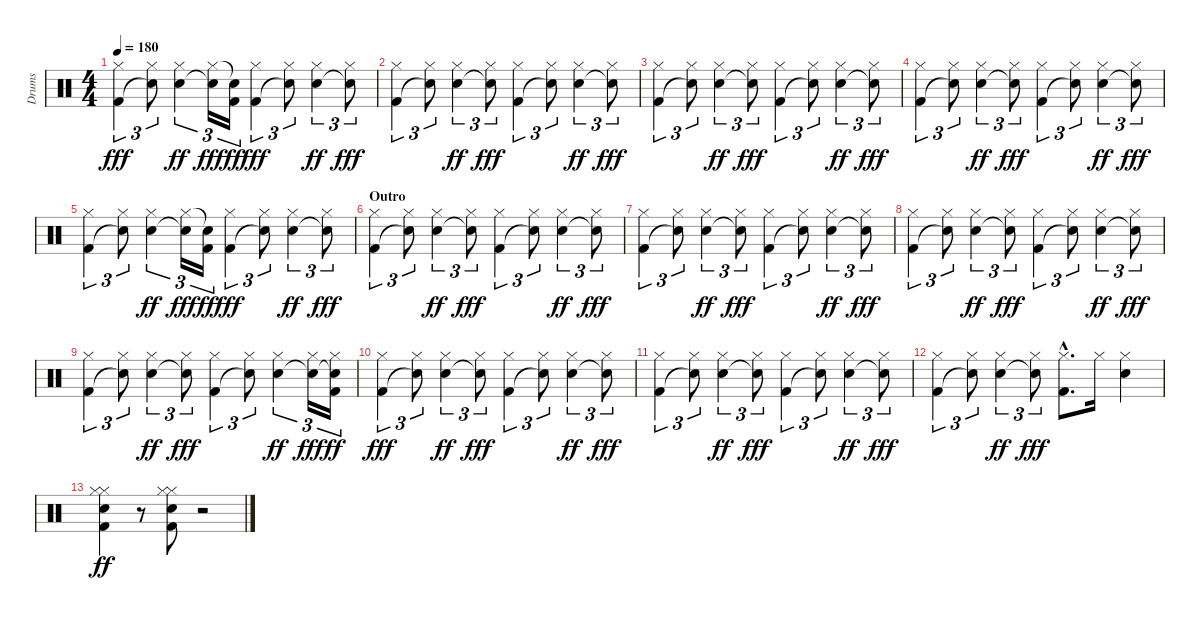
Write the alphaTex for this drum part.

\track ("Drums" "Drums") {instrument percussion}
\staff {score}
\articulation defaults
\ts (4 4)
\tempo 180
\clef neutral
\ks c
("Hi-Hat (closed)" "Kick (hit) 2").4{tu (3 2) dy fff} ("Hi-Hat (closed)" "Snare (hit)"{t}).8{tu (3 2)} ("Hi-Hat (closed)" "Electric Snare (hit)").4{tu (3 2) dy ff} ("Hi-Hat (closed)" "Snare (hit)"{t}).16{tu (3 2) dy fff} ("Snare (hit)"{t} "Kick (hit) 2").16{tu (3 2) dy ff} ("Hi-Hat (closed)" "Kick (hit) 2").4{tu (3 2) dy fff} ("Hi-Hat (closed)" "Snare (hit)"{t}).8{tu (3 2)} ("Hi-Hat (closed)" "Electric Snare (hit)").4{tu (3 2) dy ff} ("Hi-Hat (closed)" "Snare (hit)"{t}).8{tu (3 2) dy fff} |
("Hi-Hat (closed)" "Kick (hit) 2").4{tu (3 2)} ("Hi-Hat (closed)" "Snare (hit)"{t}).8{tu (3 2)} ("Hi-Hat (closed)" "Electric Snare (hit)").4{tu (3 2) dy ff} ("Hi-Hat (closed)" "Snare (hit)"{t}).8{tu (3 2) dy fff} ("Hi-Hat (closed)" "Kick (hit) 2").4{tu (3 2)} ("Hi-Hat (closed)" "Snare (hit)"{t}).8{tu (3 2)} ("Hi-Hat (closed)" "Electric Snare (hit)").4{tu (3 2) dy ff} ("Hi-Hat (closed)" "Snare (hit)"{t}).8{tu (3 2) dy fff} |
("Hi-Hat (closed)" "Kick (hit) 2").4{tu (3 2)} ("Hi-Hat (closed)" "Snare (hit)"{t}).8{tu (3 2)} ("Hi-Hat (closed)" "Electric Snare (hit)").4{tu (3 2) dy ff} ("Hi-Hat (closed)" "Snare (hit)"{t}).8{tu (3 2) dy fff} ("Hi-Hat (closed)" "Kick (hit) 2").4{tu (3 2)} ("Hi-Hat (closed)" "Snare (hit)"{t}).8{tu (3 2)} ("Hi-Hat (closed)" "Electric Snare (hit)").4{tu (3 2) dy ff} ("Hi-Hat (closed)" "Snare (hit)"{t}).8{tu (3 2) dy fff} |
("Hi-Hat (closed)" "Kick (hit) 2").4{tu (3 2)} ("Hi-Hat (closed)" "Snare (hit)"{t}).8{tu (3 2)} ("Hi-Hat (closed)" "Electric Snare (hit)").4{tu (3 2) dy ff} ("Hi-Hat (closed)" "Snare (hit)"{t}).8{tu (3 2) dy fff} ("Hi-Hat (closed)" "Kick (hit) 2").4{tu (3 2)} ("Hi-Hat (closed)" "Snare (hit)"{t}).8{tu (3 2)} ("Hi-Hat (closed)" "Electric Snare (hit)").4{tu (3 2) dy ff} ("Hi-Hat (closed)" "Snare (hit)"{t}).8{tu (3 2) dy fff} |
("Hi-Hat (closed)" "Kick (hit) 2").4{tu (3 2)} ("Hi-Hat (closed)" "Snare (hit)"{t}).8{tu (3 2)} ("Hi-Hat (closed)" "Electric Snare (hit)").4{tu (3 2) dy ff} ("Hi-Hat (closed)" "Snare (hit)"{t}).16{tu (3 2) dy fff} ("Snare (hit)"{t} "Kick (hit) 2").16{tu (3 2) dy ff} ("Hi-Hat (closed)" "Kick (hit) 2").4{tu (3 2) dy fff} ("Hi-Hat (closed)" "Snare (hit)"{t}).8{tu (3 2)} ("Hi-Hat (closed)" "Electric Snare (hit)").4{tu (3 2) dy ff} ("Hi-Hat (closed)" "Snare (hit)"{t}).8{tu (3 2) dy fff} |
\section ("" "Outro")
("Hi-Hat (closed)" "Kick (hit) 2").4{tu (3 2)} ("Hi-Hat (closed)" "Snare (hit)"{t}).8{tu (3 2)} ("Hi-Hat (closed)" "Electric Snare (hit)").4{tu (3 2) dy ff} ("Hi-Hat (closed)" "Snare (hit)"{t}).8{tu (3 2) dy fff} ("Hi-Hat (closed)" "Kick (hit) 2").4{tu (3 2)} ("Hi-Hat (closed)" "Snare (hit)"{t}).8{tu (3 2)} ("Hi-Hat (closed)" "Electric Snare (hit)").4{tu (3 2) dy ff} ("Hi-Hat (closed)" "Snare (hit)"{t}).8{tu (3 2) dy fff} |
("Hi-Hat (closed)" "Kick (hit) 2").4{tu (3 2)} ("Hi-Hat (closed)" "Snare (hit)"{t}).8{tu (3 2)} ("Hi-Hat (closed)" "Electric Snare (hit)").4{tu (3 2) dy ff} ("Hi-Hat (closed)" "Snare (hit)"{t}).8{tu (3 2) dy fff} ("Hi-Hat (closed)" "Kick (hit) 2").4{tu (3 2)} ("Hi-Hat (closed)" "Snare (hit)"{t}).8{tu (3 2)} ("Hi-Hat (closed)" "Electric Snare (hit)").4{tu (3 2) dy ff} ("Hi-Hat (closed)" "Snare (hit)"{t}).8{tu (3 2) dy fff} |
("Hi-Hat (closed)" "Kick (hit) 2").4{tu (3 2)} ("Hi-Hat (closed)" "Snare (hit)"{t}).8{tu (3 2)} ("Hi-Hat (closed)" "Electric Snare (hit)").4{tu (3 2) dy ff} ("Hi-Hat (closed)" "Snare (hit)"{t}).8{tu (3 2) dy fff} ("Hi-Hat (closed)" "Kick (hit) 2").4{tu (3 2)} ("Hi-Hat (closed)" "Snare (hit)"{t}).8{tu (3 2)} ("Hi-Hat (closed)" "Electric Snare (hit)").4{tu (3 2) dy ff} ("Hi-Hat (closed)" "Snare (hit)"{t}).8{tu (3 2) dy fff} |
("Hi-Hat (closed)" "Kick (hit) 2").4{tu (3 2)} ("Hi-Hat (closed)" "Snare (hit)"{t}).8{tu (3 2)} ("Hi-Hat (closed)" "Electric Snare (hit)").4{tu (3 2) dy ff} ("Hi-Hat (closed)" "Snare (hit)"{t}).8{tu (3 2) dy fff} ("Hi-Hat (closed)" "Kick (hit) 2").4{tu (3 2)} ("Hi-Hat (closed)" "Snare (hit)"{t}).8{tu (3 2)} ("Hi-Hat (closed)" "Electric Snare (hit)").4{tu (3 2) dy ff} ("Hi-Hat (closed)" "Snare (hit)"{t}).16{tu (3 2) dy fff} ("Hi-Hat (closed)" "Snare (hit)"{t} "Kick (hit) 2").16{tu (3 2) dy ff} |
("Hi-Hat (closed)" "Kick (hit) 2").4{tu (3 2) dy fff} ("Hi-Hat (closed)" "Snare (hit)"{t}).8{tu (3 2)} ("Hi-Hat (closed)" "Electric Snare (hit)").4{tu (3 2) dy ff} ("Hi-Hat (closed)" "Snare (hit)"{t}).8{tu (3 2) dy fff} ("Hi-Hat (closed)" "Kick (hit) 2").4{tu (3 2)} ("Hi-Hat (closed)" "Snare (hit)"{t}).8{tu (3 2)} ("Hi-Hat (closed)" "Electric Snare (hit)").4{tu (3 2) dy ff} ("Hi-Hat (closed)" "Snare (hit)"{t}).8{tu (3 2) dy fff} |
("Hi-Hat (closed)" "Kick (hit) 2").4{tu (3 2)} ("Hi-Hat (closed)" "Snare (hit)"{t}).8{tu (3 2)} ("Hi-Hat (closed)" "Electric Snare (hit)").4{tu (3 2) dy ff} ("Hi-Hat (closed)" "Snare (hit)"{t}).8{tu (3 2) dy fff} ("Hi-Hat (closed)" "Kick (hit) 2").4{tu (3 2)} ("Hi-Hat (closed)" "Snare (hit)"{t}).8{tu (3 2)} ("Hi-Hat (closed)" "Electric Snare (hit)").4{tu (3 2) dy ff} ("Hi-Hat (closed)" "Snare (hit)"{t}).8{tu (3 2) dy fff} |
("Hi-Hat (closed)" "Kick (hit) 2").4{tu (3 2)} ("Hi-Hat (closed)" "Snare (hit)"{t}).8{tu (3 2)} ("Hi-Hat (closed)" "Electric Snare (hit)").4{tu (3 2) dy ff} ("Hi-Hat (closed)" "Snare (hit)"{t}).8{tu (3 2) dy fff} ("Hi-Hat (closed)"{hac} "Kick (hit) 2"{hac}).8{d} "Hi-Hat (closed)".16 ("Hi-Hat (closed)" "Electric Snare (hit)").4 |
("Hi-Hat (closed)" "Hi-Hat (closed)" "Electric Snare (hit)" "Kick (hit) 2").4{dy ff} r.8 ("Hi-Hat (closed)" "Hi-Hat (closed)" "Electric Snare (hit)" "Kick (hit) 2").8 r.2
